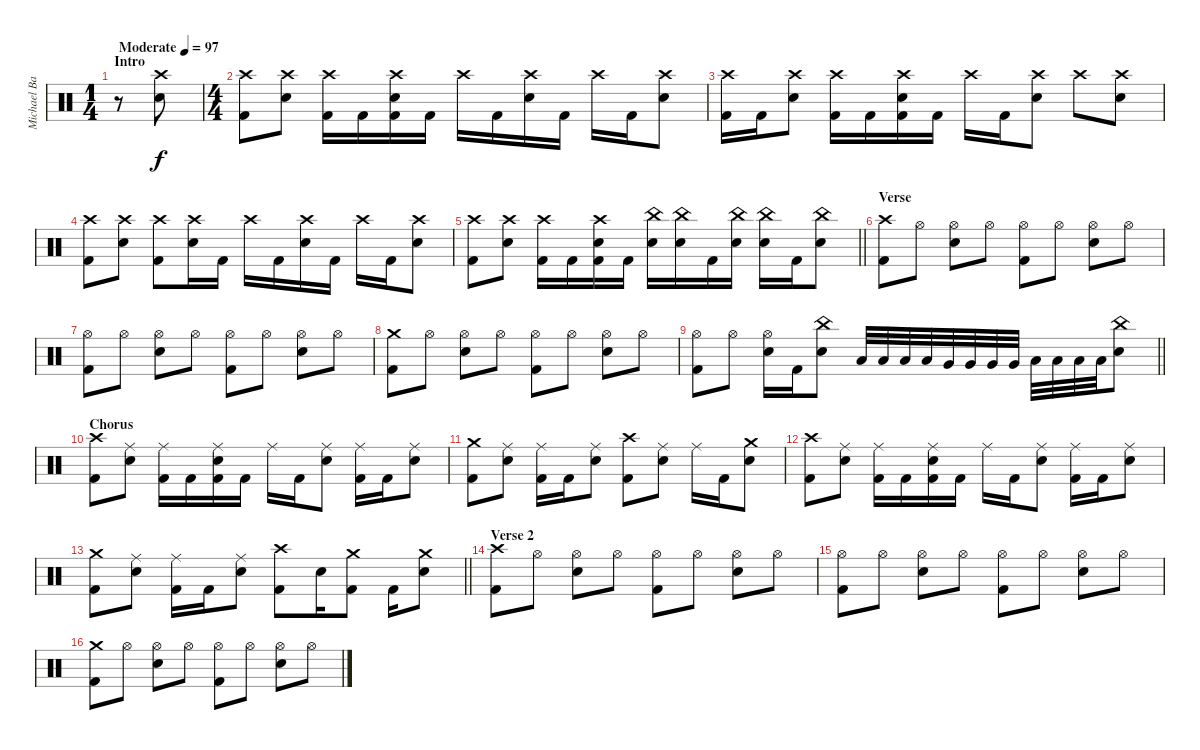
\track ("Michael Bartlett" "Michael Ba") {instrument percussion}
\staff {score}
\articulation defaults
\ts (1 4)
\section ("" "Intro")
\tempo (97 "Moderate")
\clef neutral
\ks c
r.8{dy f} ("Crash high (hit)" "Snare (hit) 2").8 |
\ts (4 4)
("Crash high (hit)" "Kick (hit) 2").8 ("Crash high (hit)" "Snare (hit) 2").8 ("Crash high (hit)" "Kick (hit) 2").16 "Kick (hit) 2".16 ("Crash high (hit)" "Snare (hit) 2" "Kick (hit) 2").16 "Kick (hit) 2".16 "Crash high (hit)".16 "Kick (hit) 2".16 ("Crash high (hit)" "Snare (hit) 2").16 "Kick (hit) 2".16 "Crash high (hit)".16 "Kick (hit) 2".16 ("Crash high (hit)" "Snare (hit) 2").8 |
("Crash high (hit)" "Kick (hit) 2").16 "Kick (hit) 2".16 ("Crash high (hit)" "Snare (hit) 2").8 ("Crash high (hit)" "Kick (hit) 2").16 "Kick (hit) 2".16 ("Crash high (hit)" "Snare (hit) 2" "Kick (hit) 2").16 "Kick (hit) 2".16 "Crash high (hit)".16 "Kick (hit) 2".16 ("Crash high (hit)" "Snare (hit) 2").8 "Crash high (hit)".8 ("Crash high (hit)" "Snare (hit) 2").8 |
("Crash high (hit)" "Kick (hit) 2").8 ("Crash high (hit)" "Snare (hit) 2").8 ("Crash high (hit)" "Kick (hit) 2").8 ("Crash high (hit)" "Snare (hit) 2").16 "Kick (hit) 2".16 "Crash high (hit)".16 "Kick (hit) 2".16 ("Crash high (hit)" "Snare (hit) 2").16 "Kick (hit) 2".16 "Crash high (hit)".16 "Kick (hit) 2".16 ("Crash high (hit)" "Snare (hit) 2").8 |
\barLineRight lightlight
("Crash high (hit)" "Kick (hit) 2").8 ("Crash high (hit)" "Snare (hit) 2").8 ("Crash high (hit)" "Kick (hit) 2").16 "Kick (hit) 2".16 ("Crash high (hit)" "Snare (hit) 2" "Kick (hit) 2").16 "Kick (hit) 2".16 ("China (hit)" "Snare (hit) 2").16 ("China (hit)" "Snare (hit) 2").16 "Kick (hit) 2".16 ("China (hit)" "Snare (hit) 2").16 ("China (hit)" "Snare (hit) 2").16 "Kick (hit) 2".16 ("China (hit)" "Snare (hit) 2").8 |
\section ("" "Verse")
("Crash high (hit)" "Kick (hit) 2").8 "Hi-Hat (open)".8 ("Snare (hit) 2" "Hi-Hat (open)").8 "Hi-Hat (open)".8 ("Hi-Hat (open)" "Kick (hit) 2").8 "Hi-Hat (open)".8 ("Snare (hit) 2" "Hi-Hat (open)").8 "Hi-Hat (open)".8 |
("Hi-Hat (open)" "Kick (hit) 2").8 "Hi-Hat (open)".8 ("Snare (hit) 2" "Hi-Hat (open)").8 "Hi-Hat (open)".8 ("Hi-Hat (open)" "Kick (hit) 2").8 "Hi-Hat (open)".8 ("Snare (hit) 2" "Hi-Hat (open)").8 "Hi-Hat (open)".8 |
("Crash medium (hit)" "Kick (hit) 2").8 "Hi-Hat (open)".8 ("Snare (hit) 2" "Hi-Hat (open)").8 "Hi-Hat (open)".8 ("Hi-Hat (open)" "Kick (hit) 2").8 "Hi-Hat (open)".8 ("Snare (hit) 2" "Hi-Hat (open)").8 "Hi-Hat (open)".8 |
\barLineRight lightlight
("Hi-Hat (open)" "Kick (hit) 2").8 "Hi-Hat (open)".8 ("Snare (hit) 2" "Hi-Hat (open)").16 "Kick (hit) 2".16 ("China (hit)" "Snare (hit) 2").8 "Low Tom (hit)".32 "Low Tom (hit)".32 "Low Tom (hit)".32 "Low Tom (hit)".32 "Very Low Tom (hit)".32 "Very Low Tom (hit)".32 "Very Low Tom (hit)".32 "Very Low Tom (hit)".32 "Low Floor Tom (hit)".32 "Low Floor Tom (hit)".32 "Low Floor Tom (hit)".32 "Low Floor Tom (hit)".32 ("China (hit)" "Snare (hit) 2").8 |
\section ("" "Chorus")
("Crash high (hit)" "Kick (hit) 2").8 ("Snare (hit) 2" "Ride (middle)").8 ("Ride (middle)" "Kick (hit) 2").16 "Kick (hit) 2".16 ("Snare (hit) 2" "Ride (middle)" "Kick (hit) 2").16 "Kick (hit) 2".16 "Ride (middle)".16 "Kick (hit) 2".16 ("Snare (hit) 2" "Ride (middle)").8 ("Ride (middle)" "Kick (hit) 2").16 "Kick (hit) 2".16 ("Snare (hit) 2" "Ride (middle)").8 |
("Crash medium (hit)" "Kick (hit) 2").8 ("Snare (hit) 2" "Ride (middle)").8 ("Ride (middle)" "Kick (hit) 2").16 "Kick (hit) 2".16 ("Snare (hit) 2" "Ride (middle)").8 ("Crash high (hit)" "Kick (hit) 2").8 ("Snare (hit) 2" "Ride (middle)").8 "Ride (middle)".16 "Kick (hit) 2".16 ("Crash medium (hit)" "Snare (hit) 2").8 |
("Crash high (hit)" "Kick (hit) 2").8 ("Snare (hit) 2" "Ride (middle)").8 ("Ride (middle)" "Kick (hit) 2").16 "Kick (hit) 2".16 ("Snare (hit) 2" "Ride (middle)" "Kick (hit) 2").16 "Kick (hit) 2".16 "Ride (middle)".16 "Kick (hit) 2".16 ("Snare (hit) 2" "Ride (middle)").8 ("Ride (middle)" "Kick (hit) 2").16 "Kick (hit) 2".16 ("Snare (hit) 2" "Ride (middle)").8 |
\barLineRight lightlight
("Crash medium (hit)" "Kick (hit) 2").8 ("Snare (hit) 2" "Ride (middle)").8 ("Ride (middle)" "Kick (hit) 2").16 "Kick (hit) 2".16 ("Snare (hit) 2" "Ride (middle)").8 ("Crash high (hit)" "Kick (hit) 2").8 "Snare (hit) 2".16 ("Crash medium (hit)" "Kick (hit) 2").8 "Kick (hit) 2".16 ("Crash medium (hit)" "Snare (hit) 2").8 |
\section ("" "Verse 2")
("Crash high (hit)" "Kick (hit) 2").8 "Hi-Hat (open)".8 ("Snare (hit) 2" "Hi-Hat (open)").8 "Hi-Hat (open)".8 ("Hi-Hat (open)" "Kick (hit) 2").8 "Hi-Hat (open)".8 ("Snare (hit) 2" "Hi-Hat (open)").8 "Hi-Hat (open)".8 |
("Hi-Hat (open)" "Kick (hit) 2").8 "Hi-Hat (open)".8 ("Snare (hit) 2" "Hi-Hat (open)").8 "Hi-Hat (open)".8 ("Hi-Hat (open)" "Kick (hit) 2").8 "Hi-Hat (open)".8 ("Snare (hit) 2" "Hi-Hat (open)").8 "Hi-Hat (open)".8 |
("Crash medium (hit)" "Kick (hit) 2").8 "Hi-Hat (open)".8 ("Snare (hit) 2" "Hi-Hat (open)").8 "Hi-Hat (open)".8 ("Hi-Hat (open)" "Kick (hit) 2").8 "Hi-Hat (open)".8 ("Snare (hit) 2" "Hi-Hat (open)").8 "Hi-Hat (open)".8
